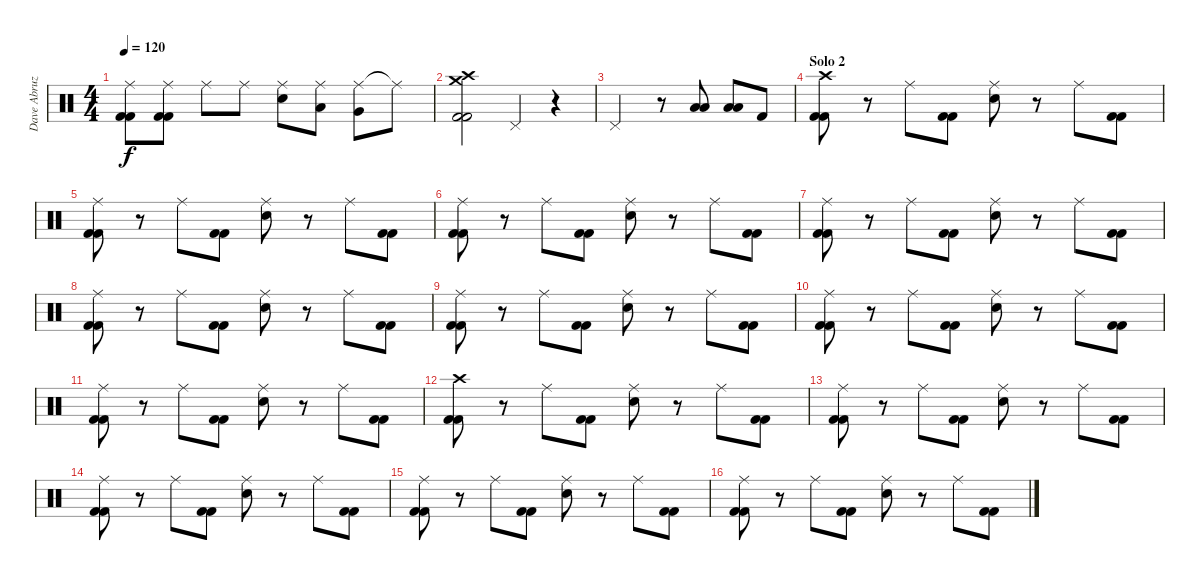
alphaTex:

\track ("Dave Abruzzese" "Dave Abruz") {instrument percussion}
\staff {score}
\articulation defaults
\ts (4 4)
\tempo 120
\clef neutral
\ks c
("Ride (middle)" "Kick (hit) 2" "Kick (hit) 2").8{dy f} ("Ride (middle)" "Kick (hit) 2" "Kick (hit) 2").8 "Ride (middle)".8 "Ride (middle)".8 ("Ride (middle)" "Electric Snare (hit)").8 ("Ride (middle)" "Low Tom (hit)").8 ("Ride (middle)" "Very Low Tom (hit)").8 "Ride (middle)"{t}.8 |
("Crash high (hit)" "Crash medium (hit)" "Kick (hit) 2" "Kick (hit) 2").2 "Pedal Hi-Hat (hit)".4 r.4 |
"Pedal Hi-Hat (hit)".2 r.8 ("Low Tom (hit)" "Low Tom (hit)").8 ("Low Tom (hit)" "Low Tom (hit)").8 "Kick (hit) 2".8 |
\section ("" "Solo 2")
("Crash high (hit)" "Kick (hit) 2" "Kick (hit) 2").8 r.8 "Ride (middle)".8 ("Kick (hit) 2" "Kick (hit) 2").8 ("Ride (middle)" "Electric Snare (hit)").8 r.8 "Ride (middle)".8 ("Kick (hit) 2" "Kick (hit) 2").8 |
("Ride (middle)" "Kick (hit) 2" "Kick (hit) 2").8 r.8 "Ride (middle)".8 ("Kick (hit) 2" "Kick (hit) 2").8 ("Ride (middle)" "Electric Snare (hit)").8 r.8 "Ride (middle)".8 ("Kick (hit) 2" "Kick (hit) 2").8 |
("Ride (middle)" "Kick (hit) 2" "Kick (hit) 2").8 r.8 "Ride (middle)".8 ("Kick (hit) 2" "Kick (hit) 2").8 ("Ride (middle)" "Electric Snare (hit)").8 r.8 "Ride (middle)".8 ("Kick (hit) 2" "Kick (hit) 2").8 |
("Ride (middle)" "Kick (hit) 2" "Kick (hit) 2").8 r.8 "Ride (middle)".8 ("Kick (hit) 2" "Kick (hit) 2").8 ("Ride (middle)" "Electric Snare (hit)").8 r.8 "Ride (middle)".8 ("Kick (hit) 2" "Kick (hit) 2").8 |
("Ride (middle)" "Kick (hit) 2" "Kick (hit) 2").8 r.8 "Ride (middle)".8 ("Kick (hit) 2" "Kick (hit) 2").8 ("Ride (middle)" "Electric Snare (hit)").8 r.8 "Ride (middle)".8 ("Kick (hit) 2" "Kick (hit) 2").8 |
("Ride (middle)" "Kick (hit) 2" "Kick (hit) 2").8 r.8 "Ride (middle)".8 ("Kick (hit) 2" "Kick (hit) 2").8 ("Ride (middle)" "Electric Snare (hit)").8 r.8 "Ride (middle)".8 ("Kick (hit) 2" "Kick (hit) 2").8 |
("Ride (middle)" "Kick (hit) 2" "Kick (hit) 2").8 r.8 "Ride (middle)".8 ("Kick (hit) 2" "Kick (hit) 2").8 ("Ride (middle)" "Electric Snare (hit)").8 r.8 "Ride (middle)".8 ("Kick (hit) 2" "Kick (hit) 2").8 |
("Ride (middle)" "Kick (hit) 2" "Kick (hit) 2").8 r.8 "Ride (middle)".8 ("Kick (hit) 2" "Kick (hit) 2").8 ("Ride (middle)" "Electric Snare (hit)").8 r.8 "Ride (middle)".8 ("Kick (hit) 2" "Kick (hit) 2").8 |
("Crash high (hit)" "Kick (hit) 2" "Kick (hit) 2").8 r.8 "Ride (middle)".8 ("Kick (hit) 2" "Kick (hit) 2").8 ("Ride (middle)" "Electric Snare (hit)").8 r.8 "Ride (middle)".8 ("Kick (hit) 2" "Kick (hit) 2").8 |
("Ride (middle)" "Kick (hit) 2" "Kick (hit) 2").8 r.8 "Ride (middle)".8 ("Kick (hit) 2" "Kick (hit) 2").8 ("Ride (middle)" "Electric Snare (hit)").8 r.8 "Ride (middle)".8 ("Kick (hit) 2" "Kick (hit) 2").8 |
("Ride (middle)" "Kick (hit) 2" "Kick (hit) 2").8 r.8 "Ride (middle)".8 ("Kick (hit) 2" "Kick (hit) 2").8 ("Ride (middle)" "Electric Snare (hit)").8 r.8 "Ride (middle)".8 ("Kick (hit) 2" "Kick (hit) 2").8 |
("Ride (middle)" "Kick (hit) 2" "Kick (hit) 2").8 r.8 "Ride (middle)".8 ("Kick (hit) 2" "Kick (hit) 2").8 ("Ride (middle)" "Electric Snare (hit)").8 r.8 "Ride (middle)".8 ("Kick (hit) 2" "Kick (hit) 2").8 |
("Ride (middle)" "Kick (hit) 2" "Kick (hit) 2").8 r.8 "Ride (middle)".8 ("Kick (hit) 2" "Kick (hit) 2").8 ("Ride (middle)" "Electric Snare (hit)").8 r.8 "Ride (middle)".8 ("Kick (hit) 2" "Kick (hit) 2").8
